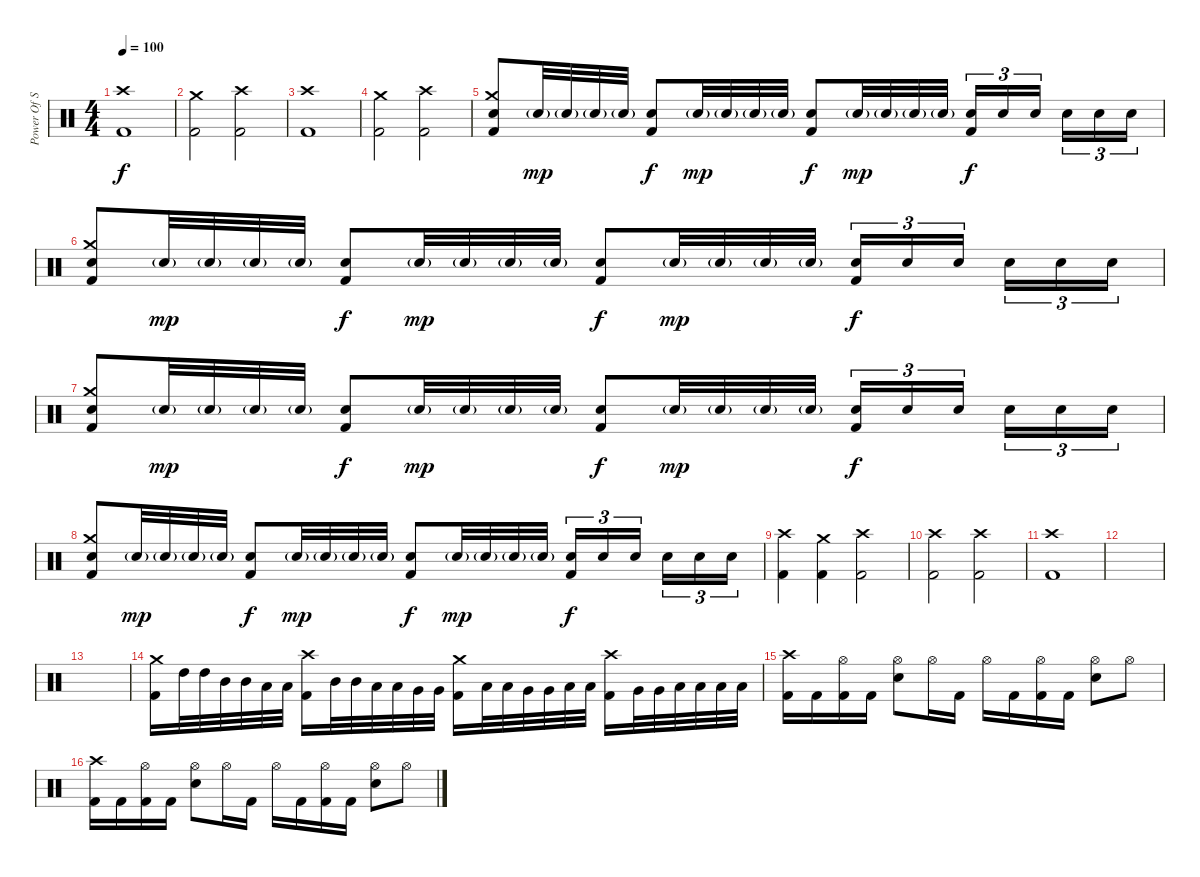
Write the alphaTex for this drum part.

\track ("Power Of Steel" "Power Of S") {instrument percussion}
\staff {score}
\articulation defaults
\ts (4 4)
\tempo 100
\clef neutral
\ks c
("Crash high (hit)" "Kick (hit) 2").1{dy f} |
("Crash medium (hit)" "Kick (hit) 2").2 ("Crash high (hit)" "Kick (hit) 2").2 |
("Crash high (hit)" "Kick (hit) 2").1 |
("Crash medium (hit)" "Kick (hit) 2").2 ("Crash high (hit)" "Kick (hit) 2").2 |
("Crash medium (hit)" "Electric Snare (hit)" "Kick (hit) 2").8 "Electric Snare (hit)"{g}.32{dy mp} "Electric Snare (hit)"{g}.32 "Electric Snare (hit)"{g}.32 "Electric Snare (hit)"{g}.32 ("Electric Snare (hit)" "Kick (hit) 2").8{dy f} "Electric Snare (hit)"{g}.32{dy mp} "Electric Snare (hit)"{g}.32 "Electric Snare (hit)"{g}.32 "Electric Snare (hit)"{g}.32 ("Electric Snare (hit)" "Kick (hit) 2").8{dy f} "Electric Snare (hit)"{g}.32{dy mp} "Electric Snare (hit)"{g}.32 "Electric Snare (hit)"{g}.32 "Electric Snare (hit)"{g}.32 ("Electric Snare (hit)" "Kick (hit) 2").16{tu (3 2) dy f} "Electric Snare (hit)".16{tu (3 2)} "Electric Snare (hit)".16{tu (3 2)} "Electric Snare (hit)".16{tu (3 2)} "Electric Snare (hit)".16{tu (3 2)} "Electric Snare (hit)".16{tu (3 2)} |
("Crash medium (hit)" "Electric Snare (hit)" "Kick (hit) 2").8 "Electric Snare (hit)"{g}.32{dy mp} "Electric Snare (hit)"{g}.32 "Electric Snare (hit)"{g}.32 "Electric Snare (hit)"{g}.32 ("Electric Snare (hit)" "Kick (hit) 2").8{dy f} "Electric Snare (hit)"{g}.32{dy mp} "Electric Snare (hit)"{g}.32 "Electric Snare (hit)"{g}.32 "Electric Snare (hit)"{g}.32 ("Electric Snare (hit)" "Kick (hit) 2").8{dy f} "Electric Snare (hit)"{g}.32{dy mp} "Electric Snare (hit)"{g}.32 "Electric Snare (hit)"{g}.32 "Electric Snare (hit)"{g}.32 ("Electric Snare (hit)" "Kick (hit) 2").16{tu (3 2) dy f} "Electric Snare (hit)".16{tu (3 2)} "Electric Snare (hit)".16{tu (3 2)} "Electric Snare (hit)".16{tu (3 2)} "Electric Snare (hit)".16{tu (3 2)} "Electric Snare (hit)".16{tu (3 2)} |
("Crash medium (hit)" "Electric Snare (hit)" "Kick (hit) 2").8 "Electric Snare (hit)"{g}.32{dy mp} "Electric Snare (hit)"{g}.32 "Electric Snare (hit)"{g}.32 "Electric Snare (hit)"{g}.32 ("Electric Snare (hit)" "Kick (hit) 2").8{dy f} "Electric Snare (hit)"{g}.32{dy mp} "Electric Snare (hit)"{g}.32 "Electric Snare (hit)"{g}.32 "Electric Snare (hit)"{g}.32 ("Electric Snare (hit)" "Kick (hit) 2").8{dy f} "Electric Snare (hit)"{g}.32{dy mp} "Electric Snare (hit)"{g}.32 "Electric Snare (hit)"{g}.32 "Electric Snare (hit)"{g}.32 ("Electric Snare (hit)" "Kick (hit) 2").16{tu (3 2) dy f} "Electric Snare (hit)".16{tu (3 2)} "Electric Snare (hit)".16{tu (3 2)} "Electric Snare (hit)".16{tu (3 2)} "Electric Snare (hit)".16{tu (3 2)} "Electric Snare (hit)".16{tu (3 2)} |
("Crash medium (hit)" "Electric Snare (hit)" "Kick (hit) 2").8 "Electric Snare (hit)"{g}.32{dy mp} "Electric Snare (hit)"{g}.32 "Electric Snare (hit)"{g}.32 "Electric Snare (hit)"{g}.32 ("Electric Snare (hit)" "Kick (hit) 2").8{dy f} "Electric Snare (hit)"{g}.32{dy mp} "Electric Snare (hit)"{g}.32 "Electric Snare (hit)"{g}.32 "Electric Snare (hit)"{g}.32 ("Electric Snare (hit)" "Kick (hit) 2").8{dy f} "Electric Snare (hit)"{g}.32{dy mp} "Electric Snare (hit)"{g}.32 "Electric Snare (hit)"{g}.32 "Electric Snare (hit)"{g}.32 ("Electric Snare (hit)" "Kick (hit) 2").16{tu (3 2) dy f} "Electric Snare (hit)".16{tu (3 2)} "Electric Snare (hit)".16{tu (3 2)} "Electric Snare (hit)".16{tu (3 2)} "Electric Snare (hit)".16{tu (3 2)} "Electric Snare (hit)".16{tu (3 2)} |
("Crash high (hit)" "Kick (hit) 2").4 ("Crash medium (hit)" "Kick (hit) 2").4 ("Crash high (hit)" "Kick (hit) 2").2 |
("Crash high (hit)" "Kick (hit) 2").2 ("Crash high (hit)" "Kick (hit) 2").2 |
("Crash high (hit)" "Kick (hit) 2").1 |
|
|
("Crash medium (hit)" "Kick (hit) 2").16 "High Tom (hit)".32 "High Tom (hit)".32 "Mid Tom (hit)".32 "Mid Tom (hit)".32 "Low Tom (hit)".32 "Low Tom (hit)".32 ("Crash high (hit)" "Kick (hit) 2").16 "Mid Tom (hit)".32 "Mid Tom (hit)".32 "Low Tom (hit)".32 "Low Tom (hit)".32 "Very Low Tom (hit)".32 "Very Low Tom (hit)".32 ("Crash medium (hit)" "Kick (hit) 2").16 "Low Tom (hit)".32 "Low Tom (hit)".32 "Very Low Tom (hit)".32 "Very Low Tom (hit)".32 "Low Floor Tom (hit)".32 "Low Floor Tom (hit)".32 ("Crash high (hit)" "Kick (hit) 2").16 "Very Low Tom (hit)".32 "Very Low Tom (hit)".32 "Low Floor Tom (hit)".32 "Low Floor Tom (hit)".32 "Low Floor Tom (hit)".32 "Low Floor Tom (hit)".32 |
("Crash high (hit)" "Kick (hit) 2").16 "Kick (hit) 2".16 ("Hi-Hat (open)" "Kick (hit) 2").16 "Kick (hit) 2".16 ("Hi-Hat (open)" "Electric Snare (hit)").8 "Hi-Hat (open)".16 "Kick (hit) 2".16 "Hi-Hat (open)".16 "Kick (hit) 2".16 ("Hi-Hat (open)" "Kick (hit) 2").16 "Kick (hit) 2".16 ("Hi-Hat (open)" "Electric Snare (hit)").8 "Hi-Hat (open)".8 |
("Crash high (hit)" "Kick (hit) 2").16 "Kick (hit) 2".16 ("Hi-Hat (open)" "Kick (hit) 2").16 "Kick (hit) 2".16 ("Hi-Hat (open)" "Electric Snare (hit)").8 "Hi-Hat (open)".16 "Kick (hit) 2".16 "Hi-Hat (open)".16 "Kick (hit) 2".16 ("Hi-Hat (open)" "Kick (hit) 2").16 "Kick (hit) 2".16 ("Hi-Hat (open)" "Electric Snare (hit)").8 "Hi-Hat (open)".8
